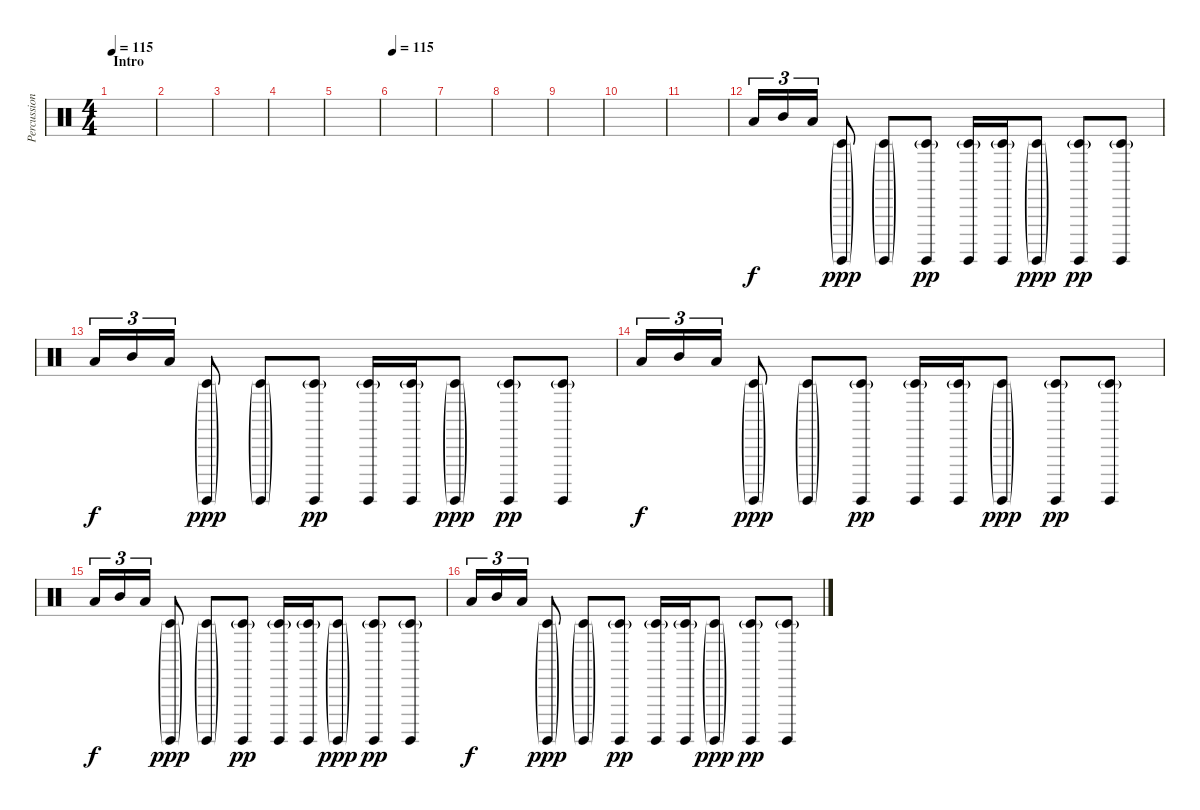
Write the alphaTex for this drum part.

\track ("Percussion - Low Tom" "Percussion") {instrument percussion}
\staff {score}
\articulation defaults
\ts (4 4)
\section ("" "Intro")
\tempo 115
\tempo 109
\tempo 115
\clef neutral
\ks c
|
|
|
|
|
\tempo 115
|
|
|
|
|
|
"Low Tom (hit)".16{tu (3 2)} "Mid Tom (hit)".16{tu (3 2)} "Low Tom (hit)".16{tu (3 2)} ("Timbale low (hit)"{g} "Surdo (hit)"{g}).8{dy ppp} ("Timbale low (hit)"{g} "Surdo (hit)"{g}).8 ("Timbale low (hit)"{g} "Surdo (hit)").8{dy pp} ("Timbale low (hit)"{g} "Surdo (hit)").16 ("Timbale low (hit)"{g} "Surdo (hit)").16 ("Timbale low (hit)"{g} "Surdo (hit)"{g}).8{dy ppp} ("Timbale low (hit)"{g} "Surdo (hit)").8{dy pp} ("Timbale low (hit)"{g} "Surdo (hit)").8 |
"Low Tom (hit)".16{tu (3 2) dy f} "Mid Tom (hit)".16{tu (3 2)} "Low Tom (hit)".16{tu (3 2)} ("Timbale low (hit)"{g} "Surdo (hit)"{g}).8{dy ppp} ("Timbale low (hit)"{g} "Surdo (hit)"{g}).8 ("Timbale low (hit)"{g} "Surdo (hit)").8{dy pp} ("Timbale low (hit)"{g} "Surdo (hit)").16 ("Timbale low (hit)"{g} "Surdo (hit)").16 ("Timbale low (hit)"{g} "Surdo (hit)"{g}).8{dy ppp} ("Timbale low (hit)"{g} "Surdo (hit)").8{dy pp} ("Timbale low (hit)"{g} "Surdo (hit)").8 |
"Low Tom (hit)".16{tu (3 2) dy f} "Mid Tom (hit)".16{tu (3 2)} "Low Tom (hit)".16{tu (3 2)} ("Timbale low (hit)"{g} "Surdo (hit)"{g}).8{dy ppp} ("Timbale low (hit)"{g} "Surdo (hit)"{g}).8 ("Timbale low (hit)"{g} "Surdo (hit)").8{dy pp} ("Timbale low (hit)"{g} "Surdo (hit)").16 ("Timbale low (hit)"{g} "Surdo (hit)").16 ("Timbale low (hit)"{g} "Surdo (hit)"{g}).8{dy ppp} ("Timbale low (hit)"{g} "Surdo (hit)").8{dy pp} ("Timbale low (hit)"{g} "Surdo (hit)").8 |
"Low Tom (hit)".16{tu (3 2) dy f} "Mid Tom (hit)".16{tu (3 2)} "Low Tom (hit)".16{tu (3 2)} ("Timbale low (hit)"{g} "Surdo (hit)"{g}).8{dy ppp} ("Timbale low (hit)"{g} "Surdo (hit)"{g}).8 ("Timbale low (hit)"{g} "Surdo (hit)").8{dy pp} ("Timbale low (hit)"{g} "Surdo (hit)").16 ("Timbale low (hit)"{g} "Surdo (hit)").16 ("Timbale low (hit)"{g} "Surdo (hit)"{g}).8{dy ppp} ("Timbale low (hit)"{g} "Surdo (hit)").8{dy pp} ("Timbale low (hit)"{g} "Surdo (hit)").8 |
"Low Tom (hit)".16{tu (3 2) dy f} "Mid Tom (hit)".16{tu (3 2)} "Low Tom (hit)".16{tu (3 2)} ("Timbale low (hit)"{g} "Surdo (hit)"{g}).8{dy ppp} ("Timbale low (hit)"{g} "Surdo (hit)"{g}).8 ("Timbale low (hit)"{g} "Surdo (hit)").8{dy pp} ("Timbale low (hit)"{g} "Surdo (hit)").16 ("Timbale low (hit)"{g} "Surdo (hit)").16 ("Timbale low (hit)"{g} "Surdo (hit)"{g}).8{dy ppp} ("Timbale low (hit)"{g} "Surdo (hit)").8{dy pp} ("Timbale low (hit)"{g} "Surdo (hit)").8
